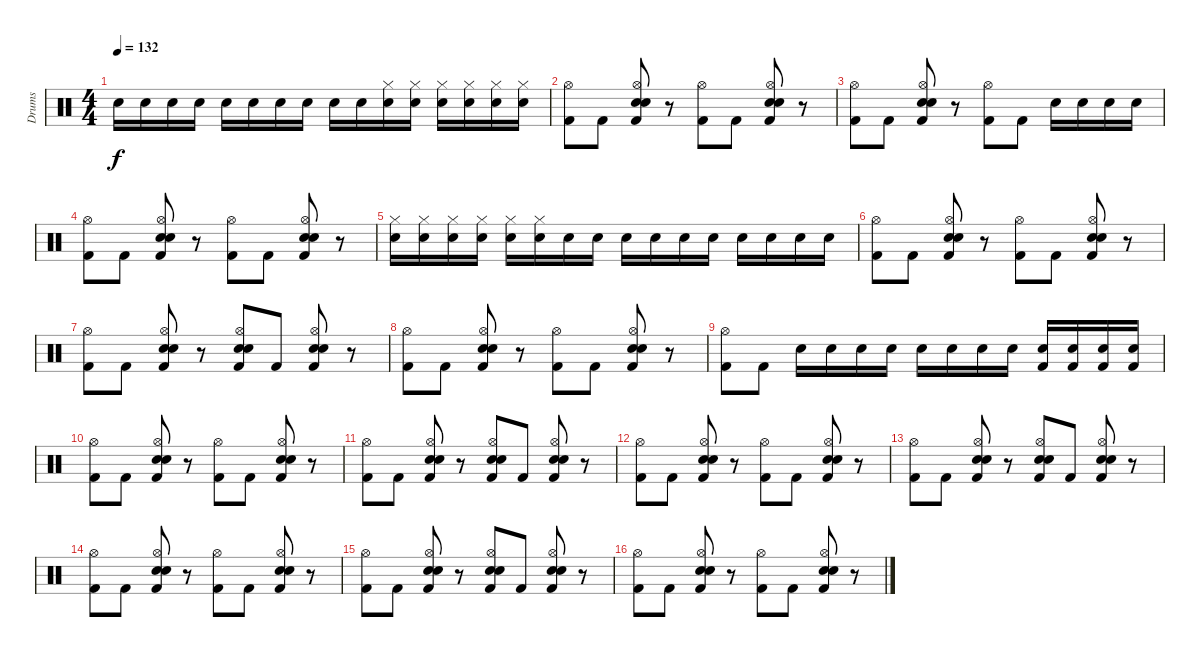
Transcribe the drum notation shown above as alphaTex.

\track ("Drums" "Drums") {instrument percussion}
\staff {score}
\articulation defaults
\ts (4 4)
\tempo 132
\clef neutral
\ks c "Snare (hit) 2".16{dy f} "Snare (hit) 2".16 "Snare (hit) 2".16 "Snare (hit) 2".16 "Snare (hit) 2".16 "Snare (hit) 2".16 "Electric Snare (hit)".16 "Electric Snare (hit)".16 "Electric Snare (hit)".16 "Electric Snare (hit)".16
("Hi-Hat (closed)" "Electric Snare (hit)").16 ("Hi-Hat (closed)" "Electric Snare (hit)").16 ("Hi-Hat (closed)" "Electric Snare (hit)").16 ("Hi-Hat (closed)" "Electric Snare (hit)").16 ("Hi-Hat (closed)" "Electric Snare (hit)").16 ("Hi-Hat (closed)" "Electric Snare (hit)").16 |
("Hi-Hat (open)" "Kick (hit) 2").8 "Kick (hit) 2".8 ("Hi-Hat (open)" "Electric Snare (hit)" "Snare (hit) 2" "Kick (hit) 2").8 r.8 ("Hi-Hat (open)" "Kick (hit) 2").8 "Kick (hit) 2".8 ("Hi-Hat (open)" "Electric Snare (hit)" "Snare (hit) 2" "Kick (hit) 2").8 r.8 |
("Hi-Hat (open)" "Kick (hit) 2").8 "Kick (hit) 2".8 ("Hi-Hat (open)" "Electric Snare (hit)" "Snare (hit) 2" "Kick (hit) 2").8 r.8 ("Hi-Hat (open)" "Kick (hit) 2").8 "Kick (hit) 2".8 "Snare (hit) 2".16 "Snare (hit) 2".16 "Snare (hit) 2".16 "Snare (hit) 2".16 |
("Hi-Hat (open)" "Kick (hit) 2").8 "Kick (hit) 2".8 ("Hi-Hat (open)" "Electric Snare (hit)" "Snare (hit) 2" "Kick (hit) 2").8 r.8 ("Hi-Hat (open)" "Kick (hit) 2").8 "Kick (hit) 2".8 ("Hi-Hat (open)" "Electric Snare (hit)" "Snare (hit) 2" "Kick (hit) 2").8 r.8 |
("Hi-Hat (closed)" "Electric Snare (hit)").16 ("Hi-Hat (closed)" "Electric Snare (hit)").16 ("Hi-Hat (closed)" "Electric Snare (hit)").16 ("Hi-Hat (closed)" "Electric Snare (hit)").16 ("Hi-Hat (closed)" "Electric Snare (hit)").16 ("Hi-Hat (closed)" "Electric Snare (hit)").16 "Electric Snare (hit)".16 "Electric Snare (hit)".16 "Electric Snare (hit)".16 "Electric Snare (hit)".16 "Snare (hit) 2".16 "Snare (hit) 2".16 "Snare (hit) 2".16 "Snare (hit) 2".16 "Snare (hit) 2".16 "Snare (hit) 2".16 |
("Hi-Hat (open)" "Kick (hit) 2").8 "Kick (hit) 2".8 ("Hi-Hat (open)" "Electric Snare (hit)" "Snare (hit) 2" "Kick (hit) 2").8 r.8 ("Hi-Hat (open)" "Kick (hit) 2").8 "Kick (hit) 2".8 ("Hi-Hat (open)" "Electric Snare (hit)" "Snare (hit) 2" "Kick (hit) 2").8 r.8 |
("Hi-Hat (open)" "Kick (hit) 2").8 "Kick (hit) 2".8 ("Hi-Hat (open)" "Electric Snare (hit)" "Snare (hit) 2" "Kick (hit) 2").8 r.8 ("Hi-Hat (open)" "Electric Snare (hit)" "Snare (hit) 2" "Kick (hit) 2").8 "Kick (hit) 2".8 ("Hi-Hat (open)" "Electric Snare (hit)" "Snare (hit) 2" "Kick (hit) 2").8 r.8 |
("Hi-Hat (open)" "Kick (hit) 2").8 "Kick (hit) 2".8 ("Hi-Hat (open)" "Electric Snare (hit)" "Snare (hit) 2" "Kick (hit) 2").8 r.8 ("Hi-Hat (open)" "Kick (hit) 2").8 "Kick (hit) 2".8 ("Hi-Hat (open)" "Electric Snare (hit)" "Snare (hit) 2" "Kick (hit) 2").8 r.8 |
("Hi-Hat (open)" "Kick (hit) 2").8 "Kick (hit) 2".8 "Electric Snare (hit)".16 "Electric Snare (hit)".16 "Electric Snare (hit)".16 "Electric Snare (hit)".16 "Snare (hit) 2".16 "Snare (hit) 2".16 "Snare (hit) 2".16 "Snare (hit) 2".16 ("Kick (hit) 2" "Snare (hit) 2").16 ("Kick (hit) 2" "Snare (hit) 2").16 ("Kick (hit) 2" "Snare (hit) 2").16 ("Kick (hit) 2" "Snare (hit) 2").16 |
("Hi-Hat (open)" "Kick (hit) 2").8 "Kick (hit) 2".8 ("Hi-Hat (open)" "Electric Snare (hit)" "Snare (hit) 2" "Kick (hit) 2").8 r.8 ("Hi-Hat (open)" "Kick (hit) 2").8 "Kick (hit) 2".8 ("Hi-Hat (open)" "Electric Snare (hit)" "Snare (hit) 2" "Kick (hit) 2").8 r.8 |
("Hi-Hat (open)" "Kick (hit) 2").8 "Kick (hit) 2".8 ("Hi-Hat (open)" "Electric Snare (hit)" "Snare (hit) 2" "Kick (hit) 2").8 r.8 ("Hi-Hat (open)" "Electric Snare (hit)" "Snare (hit) 2" "Kick (hit) 2").8 "Kick (hit) 2".8 ("Hi-Hat (open)" "Electric Snare (hit)" "Snare (hit) 2" "Kick (hit) 2").8 r.8 |
("Hi-Hat (open)" "Kick (hit) 2").8 "Kick (hit) 2".8 ("Hi-Hat (open)" "Electric Snare (hit)" "Snare (hit) 2" "Kick (hit) 2").8 r.8 ("Hi-Hat (open)" "Kick (hit) 2").8 "Kick (hit) 2".8 ("Hi-Hat (open)" "Electric Snare (hit)" "Snare (hit) 2" "Kick (hit) 2").8 r.8 |
("Hi-Hat (open)" "Kick (hit) 2").8 "Kick (hit) 2".8 ("Hi-Hat (open)" "Electric Snare (hit)" "Snare (hit) 2" "Kick (hit) 2").8 r.8 ("Hi-Hat (open)" "Electric Snare (hit)" "Snare (hit) 2" "Kick (hit) 2").8 "Kick (hit) 2".8 ("Hi-Hat (open)" "Electric Snare (hit)" "Snare (hit) 2" "Kick (hit) 2").8 r.8 |
("Hi-Hat (open)" "Kick (hit) 2").8 "Kick (hit) 2".8 ("Hi-Hat (open)" "Electric Snare (hit)" "Snare (hit) 2" "Kick (hit) 2").8 r.8 ("Hi-Hat (open)" "Kick (hit) 2").8 "Kick (hit) 2".8 ("Hi-Hat (open)" "Electric Snare (hit)" "Snare (hit) 2" "Kick (hit) 2").8 r.8 |
("Hi-Hat (open)" "Kick (hit) 2").8 "Kick (hit) 2".8 ("Hi-Hat (open)" "Electric Snare (hit)" "Snare (hit) 2" "Kick (hit) 2").8 r.8 ("Hi-Hat (open)" "Electric Snare (hit)" "Snare (hit) 2" "Kick (hit) 2").8 "Kick (hit) 2".8 ("Hi-Hat (open)" "Electric Snare (hit)" "Snare (hit) 2" "Kick (hit) 2").8 r.8 |
("Hi-Hat (open)" "Kick (hit) 2").8 "Kick (hit) 2".8 ("Hi-Hat (open)" "Electric Snare (hit)" "Snare (hit) 2" "Kick (hit) 2").8 r.8 ("Hi-Hat (open)" "Kick (hit) 2").8 "Kick (hit) 2".8 ("Hi-Hat (open)" "Electric Snare (hit)" "Snare (hit) 2" "Kick (hit) 2").8 r.8
